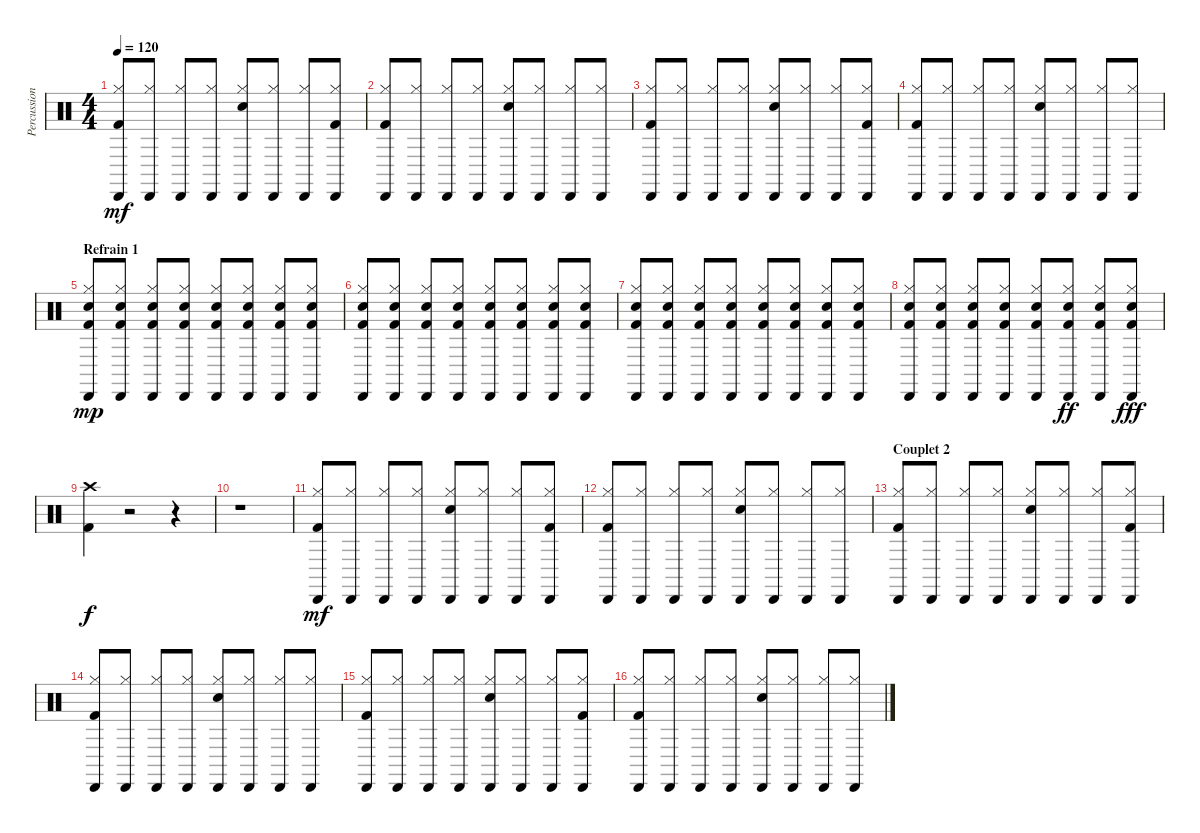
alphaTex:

\track ("Percussions" "Percussion") {instrument percussion}
\staff {score}
\articulation defaults
\ts (4 4)
\tempo 120
\clef neutral
\ks c
("Kick (hit) 2" "Cabasa (hit)" "Hi-Hat (closed)").8{dy mf} ("Cabasa (hit)" "Hi-Hat (closed)").8 ("Cabasa (hit)" "Hi-Hat (closed)").8 ("Cabasa (hit)" "Hi-Hat (closed)").8 ("Electric Snare (hit)" "Cabasa (hit)" "Hi-Hat (closed)").8 ("Cabasa (hit)" "Hi-Hat (closed)").8 ("Cabasa (hit)" "Hi-Hat (closed)").8 ("Kick (hit) 2" "Cabasa (hit)" "Hi-Hat (closed)").8 |
("Kick (hit) 2" "Cabasa (hit)" "Hi-Hat (closed)").8 ("Cabasa (hit)" "Hi-Hat (closed)").8 ("Cabasa (hit)" "Hi-Hat (closed)").8 ("Cabasa (hit)" "Hi-Hat (closed)").8 ("Electric Snare (hit)" "Cabasa (hit)" "Hi-Hat (closed)").8 ("Cabasa (hit)" "Hi-Hat (closed)").8 ("Cabasa (hit)" "Hi-Hat (closed)").8 ("Cabasa (hit)" "Hi-Hat (closed)").8 |
("Kick (hit) 2" "Cabasa (hit)" "Hi-Hat (closed)").8 ("Cabasa (hit)" "Hi-Hat (closed)").8 ("Cabasa (hit)" "Hi-Hat (closed)").8 ("Cabasa (hit)" "Hi-Hat (closed)").8 ("Electric Snare (hit)" "Cabasa (hit)" "Hi-Hat (closed)").8 ("Cabasa (hit)" "Hi-Hat (closed)").8 ("Cabasa (hit)" "Hi-Hat (closed)").8 ("Kick (hit) 2" "Cabasa (hit)" "Hi-Hat (closed)").8 |
("Kick (hit) 2" "Cabasa (hit)" "Hi-Hat (closed)").8 ("Cabasa (hit)" "Hi-Hat (closed)").8 ("Cabasa (hit)" "Hi-Hat (closed)").8 ("Cabasa (hit)" "Hi-Hat (closed)").8 ("Electric Snare (hit)" "Cabasa (hit)" "Hi-Hat (closed)").8 ("Cabasa (hit)" "Hi-Hat (closed)").8 ("Cabasa (hit)" "Hi-Hat (closed)").8 ("Cabasa (hit)" "Hi-Hat (closed)").8 |
\section ("" "Refrain 1")
("Electric Snare (hit)" "Cabasa (hit)" "Hi-Hat (closed)" "Kick (hit) 2").8{dy mp} ("Electric Snare (hit)" "Cabasa (hit)" "Hi-Hat (closed)" "Kick (hit) 2").8 ("Electric Snare (hit)" "Cabasa (hit)" "Hi-Hat (closed)" "Kick (hit) 2").8 ("Electric Snare (hit)" "Cabasa (hit)" "Hi-Hat (closed)" "Kick (hit) 2").8 ("Electric Snare (hit)" "Cabasa (hit)" "Hi-Hat (closed)" "Kick (hit) 2").8 ("Electric Snare (hit)" "Cabasa (hit)" "Hi-Hat (closed)" "Kick (hit) 2").8 ("Electric Snare (hit)" "Cabasa (hit)" "Hi-Hat (closed)" "Kick (hit) 2").8 ("Electric Snare (hit)" "Cabasa (hit)" "Hi-Hat (closed)" "Kick (hit) 2").8 |
("Electric Snare (hit)" "Cabasa (hit)" "Hi-Hat (closed)" "Kick (hit) 2").8 ("Electric Snare (hit)" "Cabasa (hit)" "Hi-Hat (closed)" "Kick (hit) 2").8 ("Electric Snare (hit)" "Cabasa (hit)" "Hi-Hat (closed)" "Kick (hit) 2").8 ("Electric Snare (hit)" "Cabasa (hit)" "Hi-Hat (closed)" "Kick (hit) 2").8 ("Electric Snare (hit)" "Cabasa (hit)" "Hi-Hat (closed)" "Kick (hit) 2").8 ("Electric Snare (hit)" "Cabasa (hit)" "Hi-Hat (closed)" "Kick (hit) 2").8 ("Electric Snare (hit)" "Cabasa (hit)" "Hi-Hat (closed)" "Kick (hit) 2").8 ("Electric Snare (hit)" "Cabasa (hit)" "Hi-Hat (closed)" "Kick (hit) 2").8 |
("Electric Snare (hit)" "Cabasa (hit)" "Hi-Hat (closed)" "Kick (hit) 2").8 ("Electric Snare (hit)" "Cabasa (hit)" "Hi-Hat (closed)" "Kick (hit) 2").8 ("Electric Snare (hit)" "Cabasa (hit)" "Hi-Hat (closed)" "Kick (hit) 2").8 ("Electric Snare (hit)" "Cabasa (hit)" "Hi-Hat (closed)" "Kick (hit) 2").8 ("Electric Snare (hit)" "Cabasa (hit)" "Hi-Hat (closed)" "Kick (hit) 2").8 ("Electric Snare (hit)" "Cabasa (hit)" "Hi-Hat (closed)" "Kick (hit) 2").8 ("Electric Snare (hit)" "Cabasa (hit)" "Hi-Hat (closed)" "Kick (hit) 2").8 ("Electric Snare (hit)" "Cabasa (hit)" "Hi-Hat (closed)" "Kick (hit) 2").8 |
("Electric Snare (hit)" "Cabasa (hit)" "Hi-Hat (closed)" "Kick (hit) 2").8 ("Electric Snare (hit)" "Cabasa (hit)" "Hi-Hat (closed)" "Kick (hit) 2").8 ("Electric Snare (hit)" "Cabasa (hit)" "Hi-Hat (closed)" "Kick (hit) 2").8 ("Electric Snare (hit)" "Cabasa (hit)" "Hi-Hat (closed)" "Kick (hit) 2").8 ("Electric Snare (hit)" "Cabasa (hit)" "Hi-Hat (closed)" "Kick (hit) 2").8 ("Electric Snare (hit)" "Cabasa (hit)" "Hi-Hat (closed)" "Kick (hit) 2").8{dy ff} ("Electric Snare (hit)" "Cabasa (hit)" "Hi-Hat (closed)" "Kick (hit) 2").8 ("Electric Snare (hit)" "Cabasa (hit)" "Hi-Hat (closed)" "Kick (hit) 2").8{dy fff} |
("Crash high (hit)" "Kick (hit) 2").4{dy f} r.2 r.4 |
r.1 |
("Kick (hit) 2" "Cabasa (hit)" "Hi-Hat (closed)").8{dy mf} ("Cabasa (hit)" "Hi-Hat (closed)").8 ("Cabasa (hit)" "Hi-Hat (closed)").8 ("Cabasa (hit)" "Hi-Hat (closed)").8 ("Electric Snare (hit)" "Cabasa (hit)" "Hi-Hat (closed)").8 ("Cabasa (hit)" "Hi-Hat (closed)").8 ("Cabasa (hit)" "Hi-Hat (closed)").8 ("Kick (hit) 2" "Cabasa (hit)" "Hi-Hat (closed)").8 |
("Kick (hit) 2" "Cabasa (hit)" "Hi-Hat (closed)").8 ("Cabasa (hit)" "Hi-Hat (closed)").8 ("Cabasa (hit)" "Hi-Hat (closed)").8 ("Cabasa (hit)" "Hi-Hat (closed)").8 ("Electric Snare (hit)" "Cabasa (hit)" "Hi-Hat (closed)").8 ("Cabasa (hit)" "Hi-Hat (closed)").8 ("Cabasa (hit)" "Hi-Hat (closed)").8 ("Cabasa (hit)" "Hi-Hat (closed)").8 |
\section ("" "Couplet 2")
("Kick (hit) 2" "Cabasa (hit)" "Hi-Hat (closed)").8 ("Cabasa (hit)" "Hi-Hat (closed)").8 ("Cabasa (hit)" "Hi-Hat (closed)").8 ("Cabasa (hit)" "Hi-Hat (closed)").8 ("Electric Snare (hit)" "Cabasa (hit)" "Hi-Hat (closed)").8 ("Cabasa (hit)" "Hi-Hat (closed)").8 ("Cabasa (hit)" "Hi-Hat (closed)").8 ("Kick (hit) 2" "Cabasa (hit)" "Hi-Hat (closed)").8 |
("Kick (hit) 2" "Cabasa (hit)" "Hi-Hat (closed)").8 ("Cabasa (hit)" "Hi-Hat (closed)").8 ("Cabasa (hit)" "Hi-Hat (closed)").8 ("Cabasa (hit)" "Hi-Hat (closed)").8 ("Electric Snare (hit)" "Cabasa (hit)" "Hi-Hat (closed)").8 ("Cabasa (hit)" "Hi-Hat (closed)").8 ("Cabasa (hit)" "Hi-Hat (closed)").8 ("Cabasa (hit)" "Hi-Hat (closed)").8 |
("Kick (hit) 2" "Cabasa (hit)" "Hi-Hat (closed)").8 ("Cabasa (hit)" "Hi-Hat (closed)").8 ("Cabasa (hit)" "Hi-Hat (closed)").8 ("Cabasa (hit)" "Hi-Hat (closed)").8 ("Electric Snare (hit)" "Cabasa (hit)" "Hi-Hat (closed)").8 ("Cabasa (hit)" "Hi-Hat (closed)").8 ("Cabasa (hit)" "Hi-Hat (closed)").8 ("Kick (hit) 2" "Cabasa (hit)" "Hi-Hat (closed)").8 |
("Kick (hit) 2" "Cabasa (hit)" "Hi-Hat (closed)").8 ("Cabasa (hit)" "Hi-Hat (closed)").8 ("Cabasa (hit)" "Hi-Hat (closed)").8 ("Cabasa (hit)" "Hi-Hat (closed)").8 ("Electric Snare (hit)" "Cabasa (hit)" "Hi-Hat (closed)").8 ("Cabasa (hit)" "Hi-Hat (closed)").8 ("Cabasa (hit)" "Hi-Hat (closed)").8 ("Cabasa (hit)" "Hi-Hat (closed)").8
